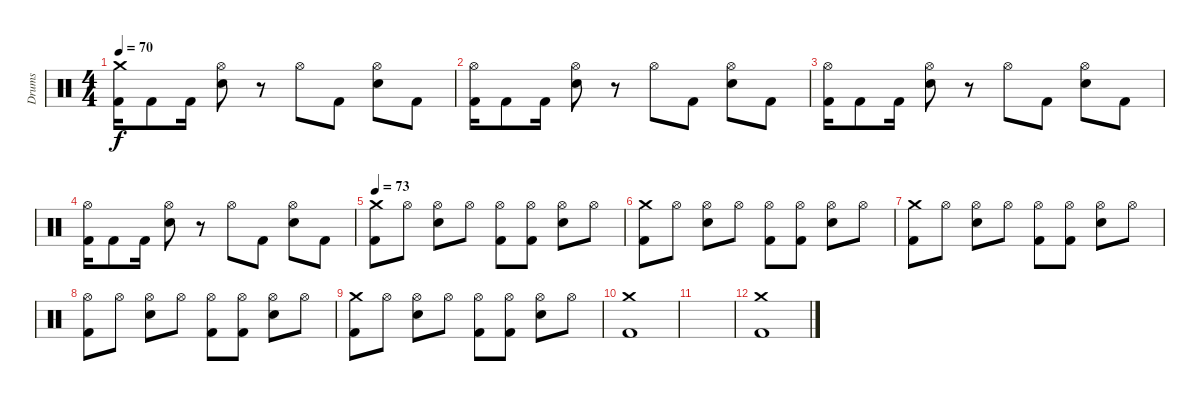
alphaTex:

\track ("Drums" "Drums") {instrument percussion}
\staff {score}
\articulation defaults
\ts (4 4)
\tempo 70
\clef neutral
\ks c
("Crash medium (hit)" "Kick (hit) 2").16{dy f} "Kick (hit) 2".8 "Kick (hit) 2".16 ("Hi-Hat (open)" "Snare (hit) 2").8 r.8 "Hi-Hat (open)".8 "Kick (hit) 2".8 ("Hi-Hat (open)" "Snare (hit) 2").8 "Kick (hit) 2".8 |
("Hi-Hat (open)" "Kick (hit) 2").16 "Kick (hit) 2".8 "Kick (hit) 2".16 ("Hi-Hat (open)" "Snare (hit) 2").8 r.8 "Hi-Hat (open)".8 "Kick (hit) 2".8 ("Hi-Hat (open)" "Snare (hit) 2").8 "Kick (hit) 2".8 |
("Hi-Hat (open)" "Kick (hit) 2").16 "Kick (hit) 2".8 "Kick (hit) 2".16 ("Hi-Hat (open)" "Snare (hit) 2").8 r.8 "Hi-Hat (open)".8 "Kick (hit) 2".8 ("Hi-Hat (open)" "Snare (hit) 2").8 "Kick (hit) 2".8 |
("Hi-Hat (open)" "Kick (hit) 2").16 "Kick (hit) 2".8 "Kick (hit) 2".16 ("Hi-Hat (open)" "Snare (hit) 2").8 r.8 "Hi-Hat (open)".8 "Kick (hit) 2".8 ("Hi-Hat (open)" "Snare (hit) 2").8 "Kick (hit) 2".8 |
\tempo 73
("Crash medium (hit)" "Kick (hit) 2").8 "Hi-Hat (open)".8 ("Hi-Hat (open)" "Snare (hit) 2").8 "Hi-Hat (open)".8 ("Hi-Hat (open)" "Kick (hit) 2").8 ("Hi-Hat (open)" "Kick (hit) 2").8 ("Hi-Hat (open)" "Snare (hit) 2").8 "Hi-Hat (open)".8 |
("Crash medium (hit)" "Kick (hit) 2").8 "Hi-Hat (open)".8 ("Hi-Hat (open)" "Snare (hit) 2").8 "Hi-Hat (open)".8 ("Hi-Hat (open)" "Kick (hit) 2").8 ("Hi-Hat (open)" "Kick (hit) 2").8 ("Hi-Hat (open)" "Snare (hit) 2").8 "Hi-Hat (open)".8 |
("Crash medium (hit)" "Kick (hit) 2").8 "Hi-Hat (open)".8 ("Hi-Hat (open)" "Snare (hit) 2").8 "Hi-Hat (open)".8 ("Hi-Hat (open)" "Kick (hit) 2").8 ("Hi-Hat (open)" "Kick (hit) 2").8 ("Hi-Hat (open)" "Snare (hit) 2").8 "Hi-Hat (open)".8 |
("Hi-Hat (open)" "Kick (hit) 2").8 "Hi-Hat (open)".8 ("Hi-Hat (open)" "Snare (hit) 2").8 "Hi-Hat (open)".8 ("Hi-Hat (open)" "Kick (hit) 2").8 ("Hi-Hat (open)" "Kick (hit) 2").8 ("Hi-Hat (open)" "Snare (hit) 2").8 "Hi-Hat (open)".8 |
("Crash medium (hit)" "Kick (hit) 2").8 "Hi-Hat (open)".8 ("Hi-Hat (open)" "Snare (hit) 2").8 "Hi-Hat (open)".8 ("Hi-Hat (open)" "Kick (hit) 2").8 ("Hi-Hat (open)" "Kick (hit) 2").8 ("Hi-Hat (open)" "Snare (hit) 2").8 "Hi-Hat (open)".8 |
("Crash medium (hit)" "Kick (hit) 2").1 |
|
("Crash medium (hit)" "Kick (hit) 2").1
